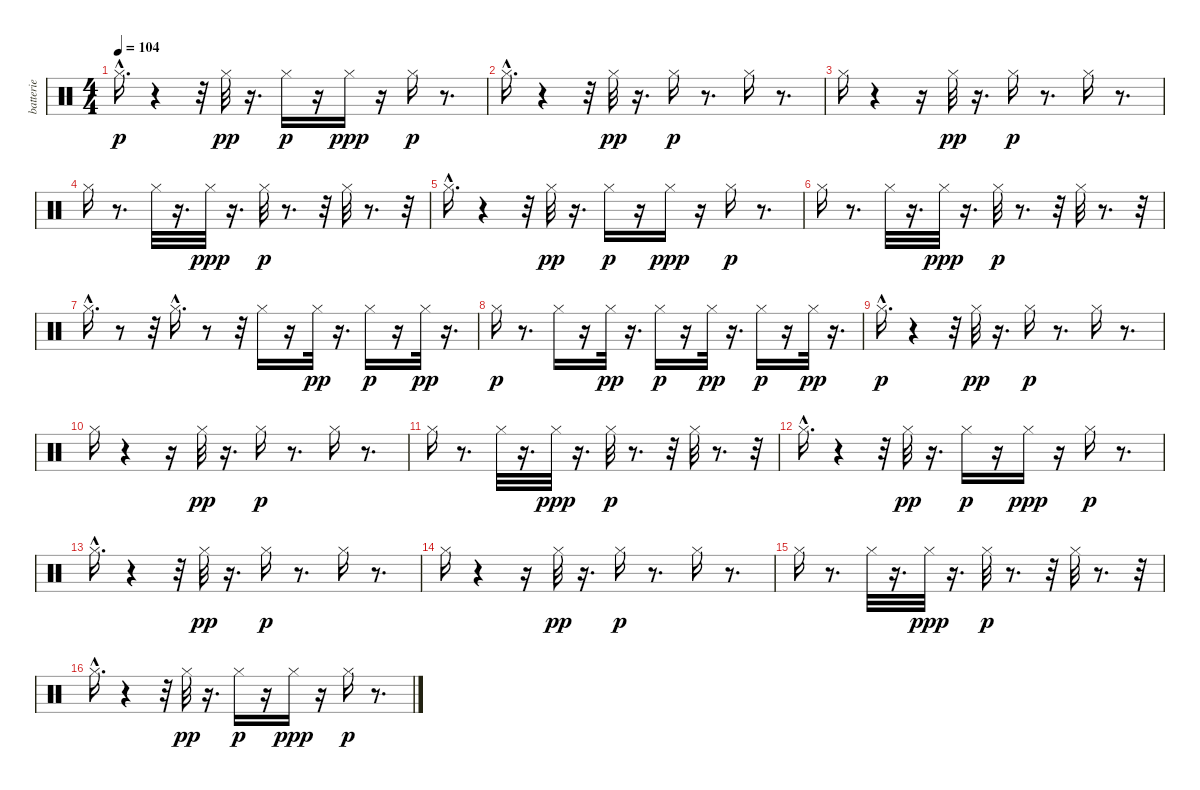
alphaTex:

\track ("batterie" "batterie") {instrument percussion}
\staff {score}
\articulation defaults
\ts (4 4)
\tempo 104
\clef neutral
\ks c "Hi-Hat (closed)"{hac}.16{d dy p}
r.4 r.32 "Hi-Hat (closed)".32{dy pp} r.16{d} "Hi-Hat (closed)".16{dy p} r.16 "Hi-Hat (closed)".16{dy ppp} r.16 "Hi-Hat (closed)".16{dy p} r.8{d} |
"Hi-Hat (closed)"{hac}.16{d} r.4 r.32 "Hi-Hat (closed)".32{dy pp} r.16{d} "Hi-Hat (closed)".16{dy p} r.8{d} "Hi-Hat (closed)".16 r.8{d} |
"Hi-Hat (closed)".16 r.4 r.16 "Hi-Hat (closed)".32{dy pp} r.16{d} "Hi-Hat (closed)".16{dy p} r.8{d} "Hi-Hat (closed)".16 r.8{d} |
"Hi-Hat (closed)".16 r.8{d} "Hi-Hat (closed)".32 r.16{d} "Hi-Hat (closed)".32{dy ppp} r.16{d} "Hi-Hat (closed)".32{dy p} r.8{d} r.32 "Hi-Hat (closed)".32 r.8{d} r.32 |
"Hi-Hat (closed)"{hac}.16{d} r.4 r.32 "Hi-Hat (closed)".32{dy pp} r.16{d} "Hi-Hat (closed)".16{dy p} r.16 "Hi-Hat (closed)".16{dy ppp} r.16 "Hi-Hat (closed)".16{dy p} r.8{d} |
"Hi-Hat (closed)".16 r.8{d} "Hi-Hat (closed)".32 r.16{d} "Hi-Hat (closed)".32{dy ppp} r.16{d} "Hi-Hat (closed)".32{dy p} r.8{d} r.32 "Hi-Hat (closed)".32 r.8{d} r.32 |
"Hi-Hat (closed)"{hac}.16{d} r.8 r.32 "Hi-Hat (closed)"{hac}.16{d} r.8 r.32 "Hi-Hat (closed)".16 r.16 "Hi-Hat (closed)".32{dy pp} r.16{d} "Hi-Hat (closed)".16{dy p} r.16 "Hi-Hat (closed)".32{dy pp} r.16{d} |
"Hi-Hat (closed)".16{dy p} r.8{d} "Hi-Hat (closed)".16 r.16 "Hi-Hat (closed)".32{dy pp} r.16{d} "Hi-Hat (closed)".16{dy p} r.16 "Hi-Hat (closed)".32{dy pp} r.16{d} "Hi-Hat (closed)".16{dy p} r.16 "Hi-Hat (closed)".32{dy pp} r.16{d} |
"Hi-Hat (closed)"{hac}.16{d dy p} r.4 r.32 "Hi-Hat (closed)".32{dy pp} r.16{d} "Hi-Hat (closed)".16{dy p} r.8{d} "Hi-Hat (closed)".16 r.8{d} |
"Hi-Hat (closed)".16 r.4 r.16 "Hi-Hat (closed)".32{dy pp} r.16{d} "Hi-Hat (closed)".16{dy p} r.8{d} "Hi-Hat (closed)".16 r.8{d} |
"Hi-Hat (closed)".16 r.8{d} "Hi-Hat (closed)".32 r.16{d} "Hi-Hat (closed)".32{dy ppp} r.16{d} "Hi-Hat (closed)".32{dy p} r.8{d} r.32 "Hi-Hat (closed)".32 r.8{d} r.32 |
"Hi-Hat (closed)"{hac}.16{d} r.4 r.32 "Hi-Hat (closed)".32{dy pp} r.16{d} "Hi-Hat (closed)".16{dy p} r.16 "Hi-Hat (closed)".16{dy ppp} r.16 "Hi-Hat (closed)".16{dy p} r.8{d} |
"Hi-Hat (closed)"{hac}.16{d} r.4 r.32 "Hi-Hat (closed)".32{dy pp} r.16{d} "Hi-Hat (closed)".16{dy p} r.8{d} "Hi-Hat (closed)".16 r.8{d} |
"Hi-Hat (closed)".16 r.4 r.16 "Hi-Hat (closed)".32{dy pp} r.16{d} "Hi-Hat (closed)".16{dy p} r.8{d} "Hi-Hat (closed)".16 r.8{d} |
"Hi-Hat (closed)".16 r.8{d} "Hi-Hat (closed)".32 r.16{d} "Hi-Hat (closed)".32{dy ppp} r.16{d} "Hi-Hat (closed)".32{dy p} r.8{d} r.32 "Hi-Hat (closed)".32 r.8{d} r.32 |
"Hi-Hat (closed)"{hac}.16{d} r.4 r.32 "Hi-Hat (closed)".32{dy pp} r.16{d} "Hi-Hat (closed)".16{dy p} r.16 "Hi-Hat (closed)".16{dy ppp} r.16 "Hi-Hat (closed)".16{dy p} r.8{d}
